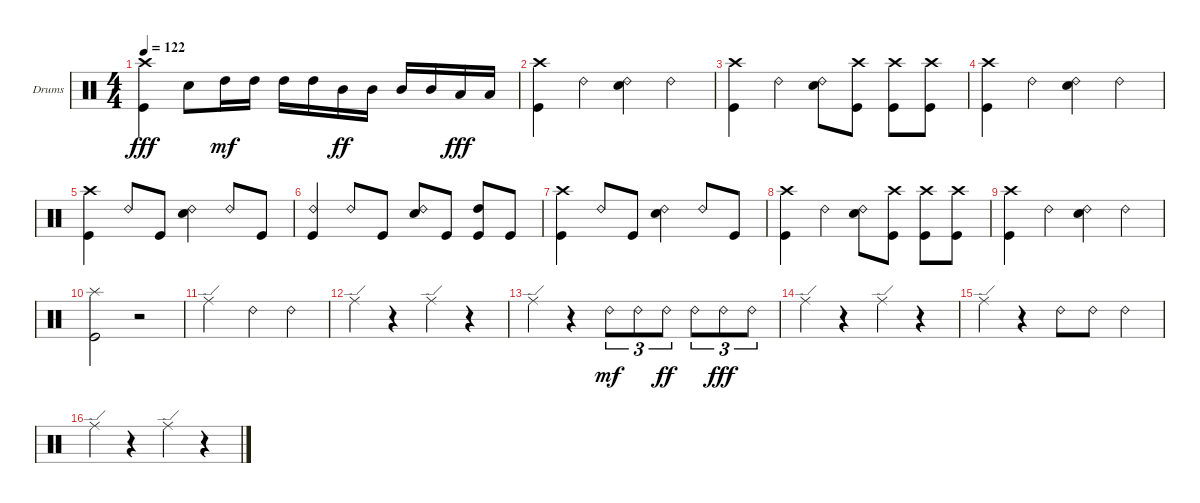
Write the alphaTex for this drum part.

\bracketExtendMode groupsimilarinstruments
\firstSystemTrackNameOrientation horizontal
\otherSystemsTrackNameOrientation horizontal
\track ("Drumkit" "Drums") {instrument percussion}
\staff {score}
\articulation defaults
\ts (4 4)
\tempo 122
\clef neutral
\ks c
("Kick (hit)" "Crash high (hit)").4{dy fff} "Snare (hit) 2".8 "High Tom (hit)".16{dy mf} "High Tom (hit)".16 "High Tom (hit)".16 "High Tom (hit)".16 "Mid Tom (hit)".16{dy ff} "Mid Tom (hit)".16 "Mid Tom (hit)".16 "Mid Tom (hit)".16 "Low Tom (hit)".16{dy fff} "Low Tom (hit)".16 |
("Kick (hit)" "Crash high (hit)").4 "Ride (bell) 2".4 ("Snare (hit) 2" "Ride (bell) 2").4 "Ride (bell) 2".4 |
("Kick (hit)" "Crash high (hit)").4 "Ride (bell) 2".4 ("Snare (hit) 2" "Ride (bell) 2").8 ("Kick (hit)" "Crash high (hit)").8 ("Kick (hit)" "Crash high (hit)").8 ("Kick (hit)" "Crash high (hit)").8 |
("Kick (hit)" "Crash high (hit)").4 "Ride (bell) 2".4 ("Snare (hit) 2" "Ride (bell) 2").4 "Ride (bell) 2".4 |
("Crash high (hit)" "Kick (hit)").4 "Ride (bell) 2".8 "Kick (hit)".8 ("Ride (bell) 2" "Snare (hit) 2").4 "Ride (bell) 2".8 "Kick (hit)".8 |
("Kick (hit)" "Ride (bell) 2").4 "Ride (bell) 2".8 "Kick (hit)".8 ("Snare (hit) 2" "Ride (bell) 2").8 "Kick (hit)".8 ("Kick (hit)" "High Tom (hit)").8 "Kick (hit)".8 |
("Crash high (hit)" "Kick (hit)").4 "Ride (bell) 2".8 "Kick (hit)".8 ("Ride (bell) 2" "Snare (hit) 2").4 "Ride (bell) 2".8 "Kick (hit)".8 |
("Kick (hit)" "Crash high (hit)").4 "Ride (bell) 2".4 ("Snare (hit) 2" "Ride (bell) 2").8 ("Kick (hit)" "Crash high (hit)").8 ("Kick (hit)" "Crash high (hit)").8 ("Kick (hit)" "Crash high (hit)").8 |
("Kick (hit)" "Crash high (hit)").4 "Ride (bell) 2".4 ("Snare (hit) 2" "Ride (bell) 2").4 "Ride (bell) 2".4 |
("Kick (hit)" "Splash (hit)").2 r.2 |
"Ride (edge)".2 "Ride (bell) 2".4 "Ride (bell) 2".4 |
"Ride (edge)".4 r.4 "Ride (edge)".4 r.4 |
"Ride (edge)".4 r.4 "Ride (bell) 2".8{tu (3 2) dy mf} "Ride (bell) 2".8{tu (3 2)} "Ride (bell) 2".8{tu (3 2) dy ff} "Ride (bell) 2".8{tu (3 2)} "Ride (bell) 2".8{tu (3 2) dy fff} "Ride (bell) 2".8{tu (3 2)} |
"Ride (edge)".4 r.4 "Ride (edge)".4 r.4 |
"Ride (edge)".4 r.4 "Ride (bell) 2".8 "Ride (bell) 2".8 "Ride (bell) 2".4 |
"Ride (edge)".4 r.4 "Ride (edge)".4 r.4
